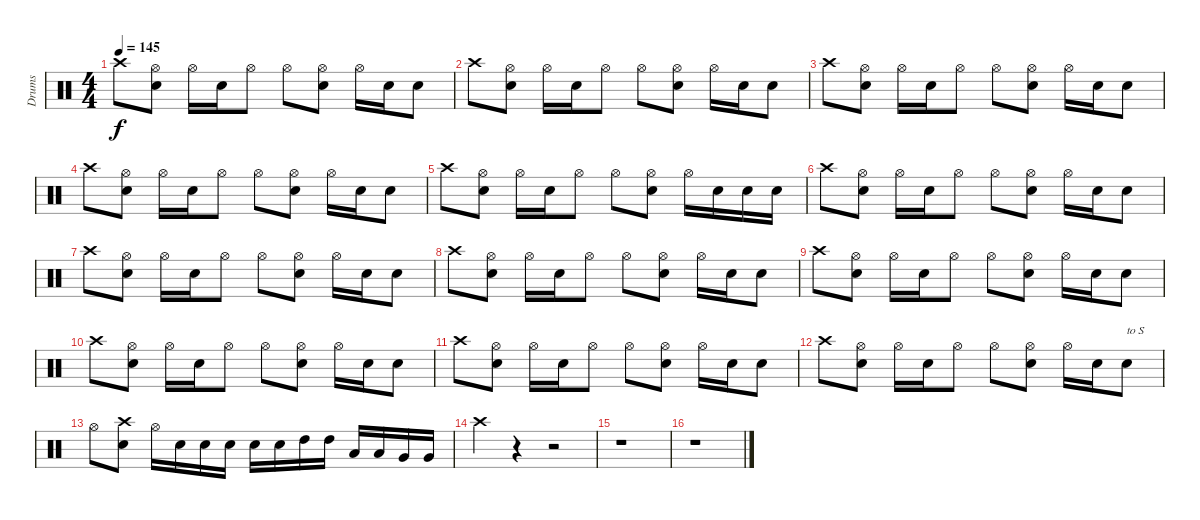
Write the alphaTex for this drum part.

\track ("Drums" "Drums") {instrument percussion}
\staff {score}
\articulation defaults
\ts (4 4)
\tempo 145
\clef neutral
\ks c "Crash high (hit)".8{dy f}
("Hi-Hat (open)" "Snare (hit) 2").8 "Hi-Hat (open)".16 "Snare (hit) 2".16 "Hi-Hat (open)".8 "Hi-Hat (open)".8 ("Hi-Hat (open)" "Snare (hit) 2").8 "Hi-Hat (open)".16 "Snare (hit) 2".16 "Snare (hit) 2".8 |
"Crash high (hit)".8 ("Hi-Hat (open)" "Snare (hit) 2").8 "Hi-Hat (open)".16 "Snare (hit) 2".16 "Hi-Hat (open)".8 "Hi-Hat (open)".8 ("Hi-Hat (open)" "Snare (hit) 2").8 "Hi-Hat (open)".16 "Snare (hit) 2".16 "Snare (hit) 2".8 |
"Crash high (hit)".8 ("Hi-Hat (open)" "Snare (hit) 2").8 "Hi-Hat (open)".16 "Snare (hit) 2".16 "Hi-Hat (open)".8 "Hi-Hat (open)".8 ("Hi-Hat (open)" "Snare (hit) 2").8 "Hi-Hat (open)".16 "Snare (hit) 2".16 "Snare (hit) 2".8 |
"Crash high (hit)".8 ("Hi-Hat (open)" "Snare (hit) 2").8 "Hi-Hat (open)".16 "Snare (hit) 2".16 "Hi-Hat (open)".8 "Hi-Hat (open)".8 ("Hi-Hat (open)" "Snare (hit) 2").8 "Hi-Hat (open)".16 "Snare (hit) 2".16 "Snare (hit) 2".8 |
"Crash high (hit)".8 ("Hi-Hat (open)" "Snare (hit) 2").8 "Hi-Hat (open)".16 "Snare (hit) 2".16 "Hi-Hat (open)".8 "Hi-Hat (open)".8 ("Hi-Hat (open)" "Snare (hit) 2").8 "Hi-Hat (open)".16 "Snare (hit) 2".16 "Snare (hit) 2".16 "Snare (hit) 2".16 |
"Crash high (hit)".8 ("Hi-Hat (open)" "Snare (hit) 2").8 "Hi-Hat (open)".16 "Snare (hit) 2".16 "Hi-Hat (open)".8 "Hi-Hat (open)".8 ("Hi-Hat (open)" "Snare (hit) 2").8 "Hi-Hat (open)".16 "Snare (hit) 2".16 "Snare (hit) 2".8 |
"Crash high (hit)".8 ("Hi-Hat (open)" "Snare (hit) 2").8 "Hi-Hat (open)".16 "Snare (hit) 2".16 "Hi-Hat (open)".8 "Hi-Hat (open)".8 ("Hi-Hat (open)" "Snare (hit) 2").8 "Hi-Hat (open)".16 "Snare (hit) 2".16 "Snare (hit) 2".8 |
"Crash high (hit)".8 ("Hi-Hat (open)" "Snare (hit) 2").8 "Hi-Hat (open)".16 "Snare (hit) 2".16 "Hi-Hat (open)".8 "Hi-Hat (open)".8 ("Hi-Hat (open)" "Snare (hit) 2").8 "Hi-Hat (open)".16 "Snare (hit) 2".16 "Snare (hit) 2".8 |
"Crash high (hit)".8 ("Hi-Hat (open)" "Snare (hit) 2").8 "Hi-Hat (open)".16 "Snare (hit) 2".16 "Hi-Hat (open)".8 "Hi-Hat (open)".8 ("Hi-Hat (open)" "Snare (hit) 2").8 "Hi-Hat (open)".16 "Snare (hit) 2".16 "Snare (hit) 2".8 |
"Crash high (hit)".8 ("Hi-Hat (open)" "Snare (hit) 2").8 "Hi-Hat (open)".16 "Snare (hit) 2".16 "Hi-Hat (open)".8 "Hi-Hat (open)".8 ("Hi-Hat (open)" "Snare (hit) 2").8 "Hi-Hat (open)".16 "Snare (hit) 2".16 "Snare (hit) 2".8 |
"Crash high (hit)".8 ("Hi-Hat (open)" "Snare (hit) 2").8 "Hi-Hat (open)".16 "Snare (hit) 2".16 "Hi-Hat (open)".8 "Hi-Hat (open)".8 ("Hi-Hat (open)" "Snare (hit) 2").8 "Hi-Hat (open)".16 "Snare (hit) 2".16 "Snare (hit) 2".8 |
"Crash high (hit)".8 ("Hi-Hat (open)" "Snare (hit) 2").8 "Hi-Hat (open)".16 "Snare (hit) 2".16 "Hi-Hat (open)".8 "Hi-Hat (open)".8 ("Hi-Hat (open)" "Snare (hit) 2").8 "Hi-Hat (open)".16 "Snare (hit) 2".16 "Snare (hit) 2".8{txt "to S"} |
"Hi-Hat (open)".8 ("Crash high (hit)" "Snare (hit) 2").8 "Hi-Hat (open)".16 "Snare (hit) 2".16 "Snare (hit) 2".16 "Snare (hit) 2".16 "Snare (hit) 2".16 "Snare (hit) 2".16 "High Tom (hit)".16 "High Tom (hit)".16 "Low Tom (hit)".16 "Low Tom (hit)".16 "Very Low Tom (hit)".16 "Very Low Tom (hit)".16 |
"Crash high (hit)".4 r.4 r.2 |
r.1 |
r.1
